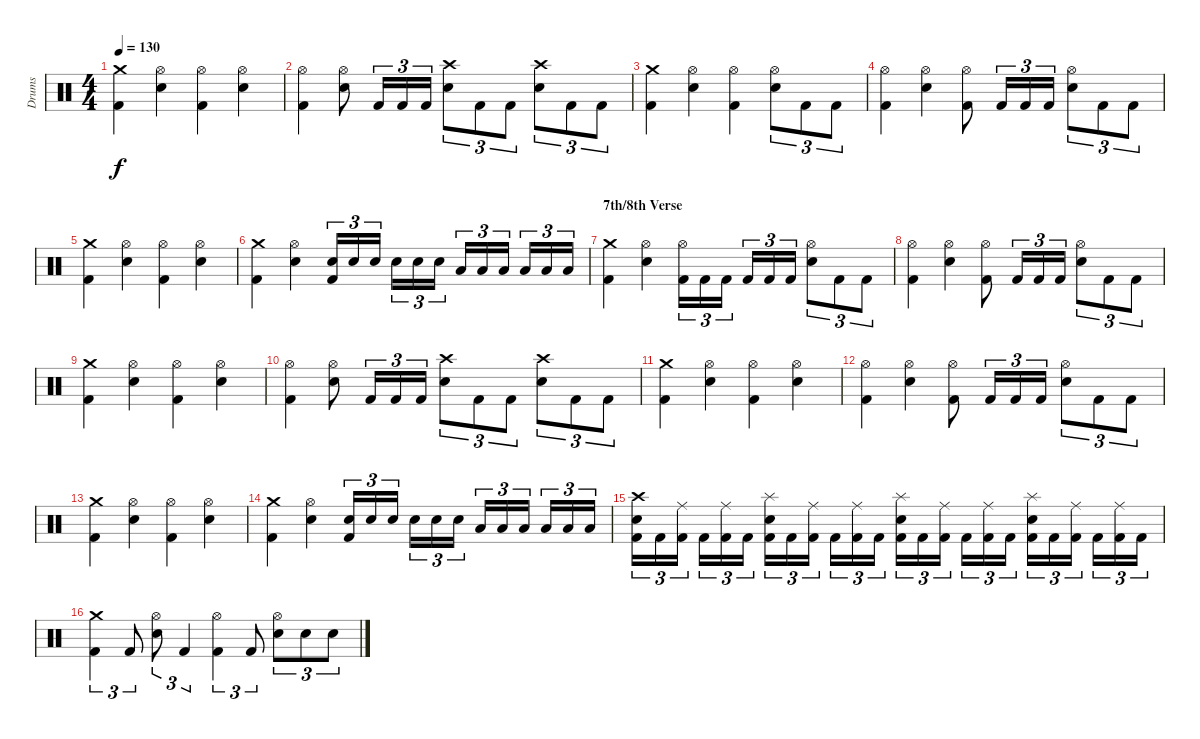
\track ("Drums" "Drums") {instrument percussion}
\staff {score}
\articulation defaults
\ts (4 4)
\tempo 130
\clef neutral
\ks c
("Kick (hit) 2" "Crash medium (hit)").4{dy f} ("Electric Snare (hit)" "Hi-Hat (open)").4 ("Kick (hit) 2" "Hi-Hat (open)").4 ("Electric Snare (hit)" "Hi-Hat (open)").4 |
("Kick (hit) 2" "Hi-Hat (open)").4 ("Electric Snare (hit)" "Hi-Hat (open)").8 "Kick (hit) 2".16{tu (3 2)} "Kick (hit) 2".16{tu (3 2)} "Kick (hit) 2".16{tu (3 2)} ("Electric Snare (hit)" "Crash high (hit)").8{tu (3 2)} "Kick (hit) 2".8{tu (3 2)} "Kick (hit) 2".8{tu (3 2)} ("Electric Snare (hit)" "Crash high (hit)").8{tu (3 2)} "Kick (hit) 2".8{tu (3 2)} "Kick (hit) 2".8{tu (3 2)} |
("Kick (hit) 2" "Crash medium (hit)").4 ("Electric Snare (hit)" "Hi-Hat (open)").4 ("Kick (hit) 2" "Hi-Hat (open)").4 ("Electric Snare (hit)" "Hi-Hat (open)").8{tu (3 2)} "Kick (hit) 2".8{tu (3 2)} "Kick (hit) 2".8{tu (3 2)} |
("Kick (hit) 2" "Hi-Hat (open)").4 ("Electric Snare (hit)" "Hi-Hat (open)").4 ("Kick (hit) 2" "Hi-Hat (open)").8 "Kick (hit) 2".16{tu (3 2)} "Kick (hit) 2".16{tu (3 2)} "Kick (hit) 2".16{tu (3 2)} ("Electric Snare (hit)" "Hi-Hat (open)").8{tu (3 2)} "Kick (hit) 2".8{tu (3 2)} "Kick (hit) 2".8{tu (3 2)} |
("Kick (hit) 2" "Crash medium (hit)").4 ("Electric Snare (hit)" "Hi-Hat (open)").4 ("Kick (hit) 2" "Hi-Hat (open)").4 ("Electric Snare (hit)" "Hi-Hat (open)").4 |
("Kick (hit) 2" "Crash medium (hit)").4 ("Electric Snare (hit)" "Hi-Hat (open)").4 ("Kick (hit) 2" "Electric Snare (hit)").16{tu (3 2)} "Electric Snare (hit)".16{tu (3 2)} "Electric Snare (hit)".16{tu (3 2)} "Electric Snare (hit)".16{tu (3 2)} "Electric Snare (hit)".16{tu (3 2)} "Electric Snare (hit)".16{tu (3 2)} "Low Tom (hit)".16{tu (3 2)} "Low Tom (hit)".16{tu (3 2)} "Low Tom (hit)".16{tu (3 2)} "Low Tom (hit)".16{tu (3 2)} "Low Tom (hit)".16{tu (3 2)} "Low Tom (hit)".16{tu (3 2)} |
\section ("" "7th/8th Verse")
("Kick (hit) 2" "Crash medium (hit)").4 ("Electric Snare (hit)" "Hi-Hat (open)").4 ("Kick (hit) 2" "Hi-Hat (open)").16{tu (3 2)} "Kick (hit) 2".16{tu (3 2)} "Kick (hit) 2".16{tu (3 2)} "Kick (hit) 2".16{tu (3 2)} "Kick (hit) 2".16{tu (3 2)} "Kick (hit) 2".16{tu (3 2)} ("Electric Snare (hit)" "Hi-Hat (open)").8{tu (3 2)} "Kick (hit) 2".8{tu (3 2)} "Kick (hit) 2".8{tu (3 2)} |
("Kick (hit) 2" "Hi-Hat (open)").4 ("Electric Snare (hit)" "Hi-Hat (open)").4 ("Kick (hit) 2" "Hi-Hat (open)").8 "Kick (hit) 2".16{tu (3 2)} "Kick (hit) 2".16{tu (3 2)} "Kick (hit) 2".16{tu (3 2)} ("Electric Snare (hit)" "Hi-Hat (open)").8{tu (3 2)} "Kick (hit) 2".8{tu (3 2)} "Kick (hit) 2".8{tu (3 2)} |
("Kick (hit) 2" "Crash medium (hit)").4 ("Electric Snare (hit)" "Hi-Hat (open)").4 ("Kick (hit) 2" "Hi-Hat (open)").4 ("Electric Snare (hit)" "Hi-Hat (open)").4 |
("Kick (hit) 2" "Hi-Hat (open)").4 ("Electric Snare (hit)" "Hi-Hat (open)").8 "Kick (hit) 2".16{tu (3 2)} "Kick (hit) 2".16{tu (3 2)} "Kick (hit) 2".16{tu (3 2)} ("Electric Snare (hit)" "Crash high (hit)").8{tu (3 2)} "Kick (hit) 2".8{tu (3 2)} "Kick (hit) 2".8{tu (3 2)} ("Electric Snare (hit)" "Crash high (hit)").8{tu (3 2)} "Kick (hit) 2".8{tu (3 2)} "Kick (hit) 2".8{tu (3 2)} |
("Kick (hit) 2" "Crash medium (hit)").4 ("Electric Snare (hit)" "Hi-Hat (open)").4 ("Kick (hit) 2" "Hi-Hat (open)").4 ("Electric Snare (hit)" "Hi-Hat (open)").4 |
("Kick (hit) 2" "Hi-Hat (open)").4 ("Electric Snare (hit)" "Hi-Hat (open)").4 ("Kick (hit) 2" "Hi-Hat (open)").8 "Kick (hit) 2".16{tu (3 2)} "Kick (hit) 2".16{tu (3 2)} "Kick (hit) 2".16{tu (3 2)} ("Electric Snare (hit)" "Hi-Hat (open)").8{tu (3 2)} "Kick (hit) 2".8{tu (3 2)} "Kick (hit) 2".8{tu (3 2)} |
("Kick (hit) 2" "Crash medium (hit)").4 ("Electric Snare (hit)" "Hi-Hat (open)").4 ("Kick (hit) 2" "Hi-Hat (open)").4 ("Electric Snare (hit)" "Hi-Hat (open)").4 |
("Kick (hit) 2" "Crash medium (hit)").4 ("Electric Snare (hit)" "Hi-Hat (open)").4 ("Kick (hit) 2" "Electric Snare (hit)").16{tu (3 2)} "Electric Snare (hit)".16{tu (3 2)} "Electric Snare (hit)".16{tu (3 2)} "Electric Snare (hit)".16{tu (3 2)} "Electric Snare (hit)".16{tu (3 2)} "Electric Snare (hit)".16{tu (3 2)} "Low Tom (hit)".16{tu (3 2)} "Low Tom (hit)".16{tu (3 2)} "Low Tom (hit)".16{tu (3 2)} "Low Tom (hit)".16{tu (3 2)} "Low Tom (hit)".16{tu (3 2)} "Low Tom (hit)".16{tu (3 2)} |
("Kick (hit) 2" "Electric Snare (hit)" "Crash high (hit)").16{tu (3 2)} "Kick (hit) 2".16{tu (3 2)} ("Kick (hit) 2" "Ride (middle)").16{tu (3 2)} "Kick (hit) 2".16{tu (3 2)} ("Kick (hit) 2" "Ride (middle)").16{tu (3 2)} "Kick (hit) 2".16{tu (3 2)} ("Kick (hit) 2" "Electric Snare (hit)" "Splash (hit)").16{tu (3 2)} "Kick (hit) 2".16{tu (3 2)} ("Kick (hit) 2" "Ride (middle)").16{tu (3 2)} "Kick (hit) 2".16{tu (3 2)} ("Kick (hit) 2" "Ride (middle)").16{tu (3 2)} "Kick (hit) 2".16{tu (3 2)} ("Kick (hit) 2" "Electric Snare (hit)" "Splash (hit)").16{tu (3 2)} "Kick (hit) 2".16{tu (3 2)} ("Kick (hit) 2" "Ride (middle)").16{tu (3 2)} "Kick (hit) 2".16{tu (3 2)} ("Kick (hit) 2" "Ride (middle)").16{tu (3 2)} "Kick (hit) 2".16{tu (3 2)} ("Kick (hit) 2" "Electric Snare (hit)" "Splash (hit)").16{tu (3 2)} "Kick (hit) 2".16{tu (3 2)} ("Kick (hit) 2" "Ride (middle)").16{tu (3 2)} "Kick (hit) 2".16{tu (3 2)} ("Kick (hit) 2" "Ride (middle)").16{tu (3 2)} "Kick (hit) 2".16{tu (3 2)} |
("Kick (hit) 2" "Crash medium (hit)").4{tu (3 2)} "Kick (hit) 2".8{tu (3 2)} ("Electric Snare (hit)" "Hi-Hat (open)").8{tu (3 2)} "Kick (hit) 2".4{tu (3 2)} ("Kick (hit) 2" "Hi-Hat (open)").4{tu (3 2)} "Kick (hit) 2".8{tu (3 2)} ("Electric Snare (hit)" "Hi-Hat (open)").8{tu (3 2)} "Electric Snare (hit)".8{tu (3 2)} "Electric Snare (hit)".8{tu (3 2)}
